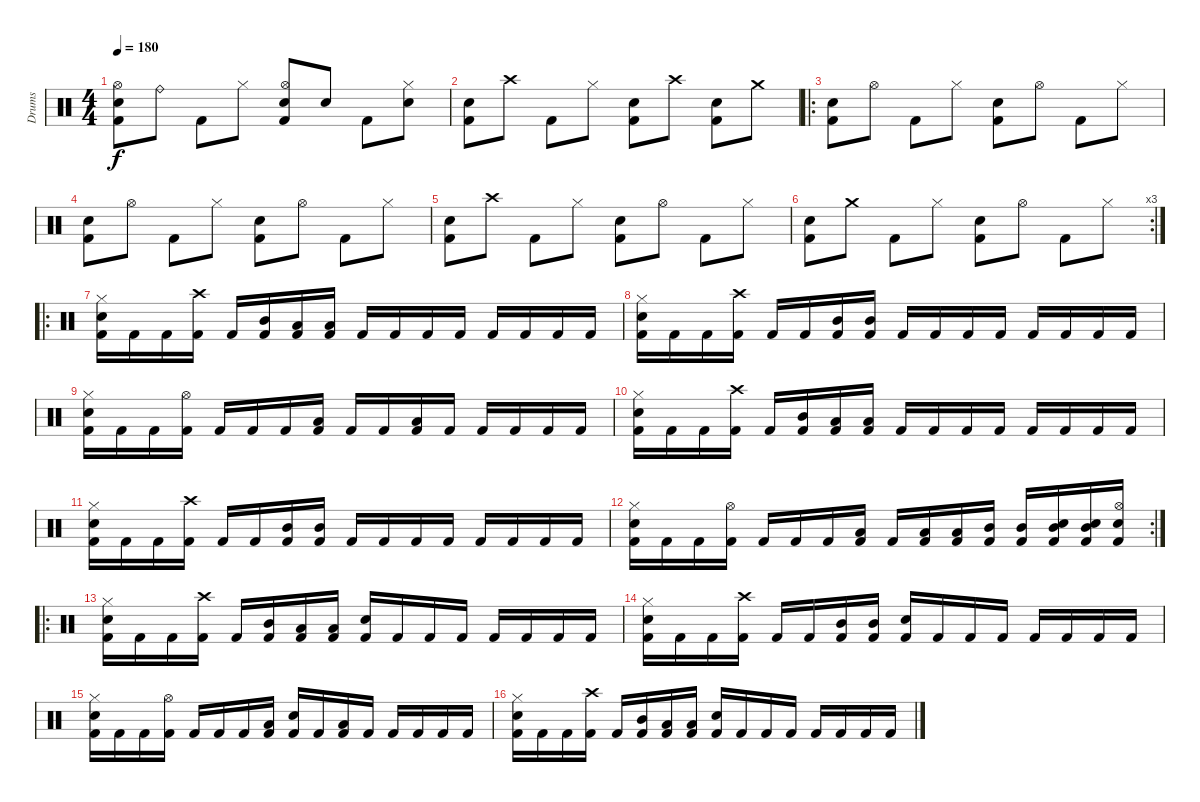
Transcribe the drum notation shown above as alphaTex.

\track ("Drums" "Drums") {instrument percussion}
\staff {score}
\articulation defaults
\ts (4 4)
\tempo 180
\clef neutral
\ks c
("Electric Snare (hit)" "Hi-Hat (open)" "Kick (hit) 2").8{dy f} "Ride (bell)".8 "Kick (hit) 2".8 "Hi-Hat (closed)".8 ("Electric Snare (hit)" "Hi-Hat (open)" "Kick (hit) 2").8 "Electric Snare (hit)".8 "Kick (hit) 2".8 ("Electric Snare (hit)" "Hi-Hat (closed)").8 |
("Electric Snare (hit)" "Kick (hit) 2").8 "Crash high (hit)".8 "Kick (hit) 2".8 "Hi-Hat (closed)".8 ("Electric Snare (hit)" "Kick (hit) 2").8 "Crash high (hit)".8 ("Electric Snare (hit)" "Kick (hit) 2").8 "Crash medium (hit)".8 |
\ro
("Electric Snare (hit)" "Kick (hit) 2").8 "Hi-Hat (open)".8 "Kick (hit) 2".8 "Hi-Hat (closed)".8 ("Electric Snare (hit)" "Kick (hit) 2").8 "Hi-Hat (open)".8 "Kick (hit) 2".8 "Hi-Hat (closed)".8 |
("Electric Snare (hit)" "Kick (hit) 2").8 "Hi-Hat (open)".8 "Kick (hit) 2".8 "Hi-Hat (closed)".8 ("Electric Snare (hit)" "Kick (hit) 2").8 "Hi-Hat (open)".8 "Kick (hit) 2".8 "Hi-Hat (closed)".8 |
("Electric Snare (hit)" "Kick (hit) 2").8 "Crash high (hit)".8 "Kick (hit) 2".8 "Hi-Hat (closed)".8 ("Electric Snare (hit)" "Kick (hit) 2").8 "Hi-Hat (open)".8 "Kick (hit) 2".8 "Hi-Hat (closed)".8 |
\rc 3
("Electric Snare (hit)" "Kick (hit) 2").8 "Crash medium (hit)".8 "Kick (hit) 2".8 "Hi-Hat (closed)".8 ("Electric Snare (hit)" "Kick (hit) 2").8 "Hi-Hat (open)".8 "Kick (hit) 2".8 "Hi-Hat (closed)".8 |
\ro
("Electric Snare (hit)" "Hi-Hat (closed)" "Kick (hit) 2").16{volume 16} "Kick (hit) 2".16 "Kick (hit) 2".16 ("Crash high (hit)" "Kick (hit) 2").16 "Kick (hit) 2".16 ("Mid Tom (hit)" "Kick (hit) 2").16 ("Low Tom (hit)" "Kick (hit) 2").16 ("Low Floor Tom (hit)" "Kick (hit) 2").16 "Kick (hit) 2".16 "Kick (hit) 2".16 "Kick (hit) 2".16 "Kick (hit) 2".16 "Kick (hit) 2".16 "Kick (hit) 2".16 "Kick (hit) 2".16 "Kick (hit) 2".16 |
("Electric Snare (hit)" "Hi-Hat (closed)" "Kick (hit) 2").16 "Kick (hit) 2".16 "Kick (hit) 2".16 ("Crash high (hit)" "Kick (hit) 2").16 "Kick (hit) 2".16 "Kick (hit) 2".16 ("Mid Tom (hit)" "Kick (hit) 2").16 ("Mid Tom (hit)" "Kick (hit) 2").16 "Kick (hit) 2".16 "Kick (hit) 2".16 "Kick (hit) 2".16 "Kick (hit) 2".16 "Kick (hit) 2".16 "Kick (hit) 2".16 "Kick (hit) 2".16 "Kick (hit) 2".16 |
("Electric Snare (hit)" "Hi-Hat (closed)" "Kick (hit) 2").16 "Kick (hit) 2".16 "Kick (hit) 2".16 ("Hi-Hat (open)" "Kick (hit) 2").16 "Kick (hit) 2".16 "Kick (hit) 2".16 "Kick (hit) 2".16 ("Low Tom (hit)" "Kick (hit) 2").16 "Kick (hit) 2".16 "Kick (hit) 2".16 ("Low Tom (hit)" "Kick (hit) 2").16 "Kick (hit) 2".16 "Kick (hit) 2".16 "Kick (hit) 2".16 "Kick (hit) 2".16 "Kick (hit) 2".16 |
("Electric Snare (hit)" "Hi-Hat (closed)" "Kick (hit) 2").16{volume 16} "Kick (hit) 2".16 "Kick (hit) 2".16 ("Crash high (hit)" "Kick (hit) 2").16 "Kick (hit) 2".16 ("Mid Tom (hit)" "Kick (hit) 2").16 ("Low Tom (hit)" "Kick (hit) 2").16 ("Low Floor Tom (hit)" "Kick (hit) 2").16 "Kick (hit) 2".16 "Kick (hit) 2".16 "Kick (hit) 2".16 "Kick (hit) 2".16 "Kick (hit) 2".16 "Kick (hit) 2".16 "Kick (hit) 2".16 "Kick (hit) 2".16 |
("Electric Snare (hit)" "Hi-Hat (closed)" "Kick (hit) 2").16 "Kick (hit) 2".16 "Kick (hit) 2".16 ("Crash high (hit)" "Kick (hit) 2").16 "Kick (hit) 2".16 "Kick (hit) 2".16 ("Mid Tom (hit)" "Kick (hit) 2").16 ("Mid Tom (hit)" "Kick (hit) 2").16 "Kick (hit) 2".16 "Kick (hit) 2".16 "Kick (hit) 2".16 "Kick (hit) 2".16 "Kick (hit) 2".16 "Kick (hit) 2".16 "Kick (hit) 2".16 "Kick (hit) 2".16 |
\rc 2
("Electric Snare (hit)" "Hi-Hat (closed)" "Kick (hit) 2").16 "Kick (hit) 2".16 "Kick (hit) 2".16 ("Hi-Hat (open)" "Kick (hit) 2").16 "Kick (hit) 2".16 "Kick (hit) 2".16 "Kick (hit) 2".16 ("Low Tom (hit)" "Kick (hit) 2").16 "Kick (hit) 2".16 ("Low Tom (hit)" "Kick (hit) 2").16 ("Low Tom (hit)" "Kick (hit) 2").16 ("Mid Tom (hit)" "Kick (hit) 2").16 ("Mid Tom (hit)" "Kick (hit) 2").16 ("Mid Tom (hit)" "Electric Snare (hit)" "Kick (hit) 2").16 ("Mid Tom (hit)" "Electric Snare (hit)" "Kick (hit) 2").16 ("Hi-Hat (open)" "Electric Snare (hit)" "Kick (hit) 2").16 |
\ro
("Electric Snare (hit)" "Hi-Hat (closed)" "Kick (hit) 2").16{volume 16} "Kick (hit) 2".16 "Kick (hit) 2".16 ("Crash high (hit)" "Kick (hit) 2").16 "Kick (hit) 2".16 ("Mid Tom (hit)" "Kick (hit) 2").16 ("Low Tom (hit)" "Kick (hit) 2").16 ("Low Floor Tom (hit)" "Kick (hit) 2").16 ("Electric Snare (hit)" "Kick (hit) 2").16 "Kick (hit) 2".16 "Kick (hit) 2".16 "Kick (hit) 2".16 "Kick (hit) 2".16 "Kick (hit) 2".16 "Kick (hit) 2".16 "Kick (hit) 2".16 |
("Electric Snare (hit)" "Hi-Hat (closed)" "Kick (hit) 2").16 "Kick (hit) 2".16 "Kick (hit) 2".16 ("Crash high (hit)" "Kick (hit) 2").16 "Kick (hit) 2".16 "Kick (hit) 2".16 ("Mid Tom (hit)" "Kick (hit) 2").16 ("Mid Tom (hit)" "Kick (hit) 2").16 ("Electric Snare (hit)" "Kick (hit) 2").16 "Kick (hit) 2".16 "Kick (hit) 2".16 "Kick (hit) 2".16 "Kick (hit) 2".16 "Kick (hit) 2".16 "Kick (hit) 2".16 "Kick (hit) 2".16 |
("Electric Snare (hit)" "Hi-Hat (closed)" "Kick (hit) 2").16 "Kick (hit) 2".16 "Kick (hit) 2".16 ("Hi-Hat (open)" "Kick (hit) 2").16 "Kick (hit) 2".16 "Kick (hit) 2".16 "Kick (hit) 2".16 ("Low Tom (hit)" "Kick (hit) 2").16 ("Electric Snare (hit)" "Kick (hit) 2").16 "Kick (hit) 2".16 ("Low Tom (hit)" "Kick (hit) 2").16 "Kick (hit) 2".16 "Kick (hit) 2".16 "Kick (hit) 2".16 "Kick (hit) 2".16 "Kick (hit) 2".16 |
("Electric Snare (hit)" "Hi-Hat (closed)" "Kick (hit) 2").16{volume 16} "Kick (hit) 2".16 "Kick (hit) 2".16 ("Crash high (hit)" "Kick (hit) 2").16 "Kick (hit) 2".16 ("Mid Tom (hit)" "Kick (hit) 2").16 ("Low Tom (hit)" "Kick (hit) 2").16 ("Low Floor Tom (hit)" "Kick (hit) 2").16 ("Electric Snare (hit)" "Kick (hit) 2").16 "Kick (hit) 2".16 "Kick (hit) 2".16 "Kick (hit) 2".16 "Kick (hit) 2".16 "Kick (hit) 2".16 "Kick (hit) 2".16 "Kick (hit) 2".16
